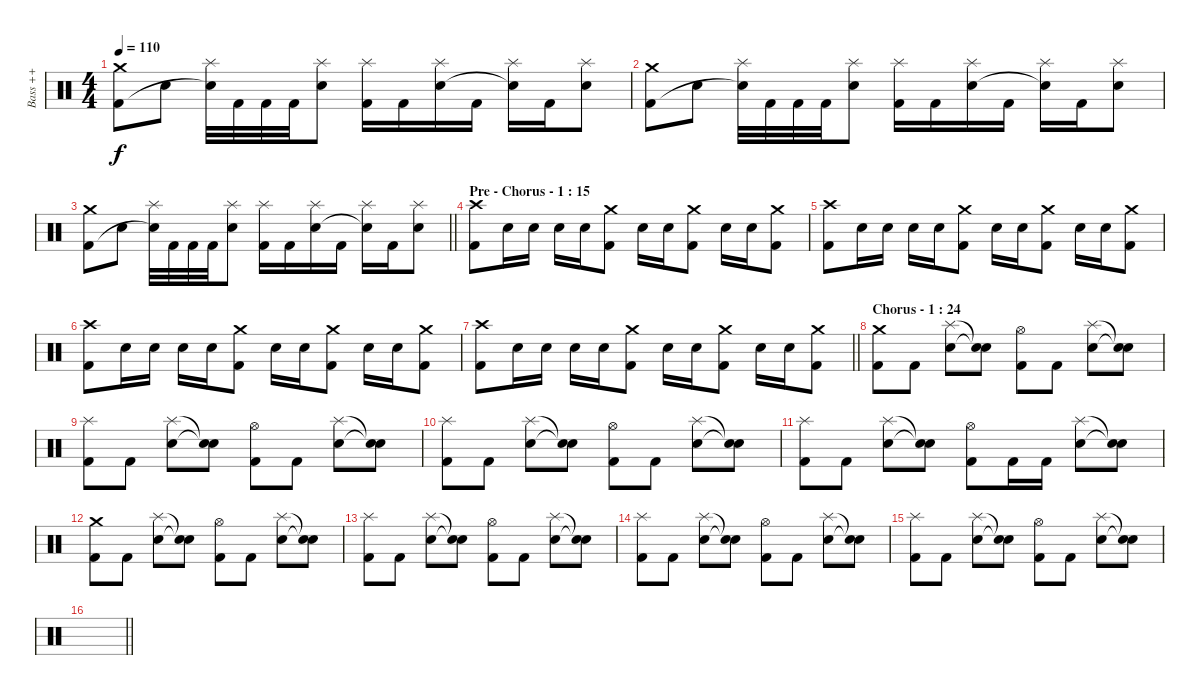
\track ("  Bass ++" "  Bass ++") {instrument percussion}
\staff {score}
\articulation defaults
\ts (4 4)
\tempo 110
\clef neutral
\ks c
("Crash medium (hit)" "Kick (hit) 2").8{dy f} "Snare (hit) 2".8 ("Splash (hit)" "Snare (hit)"{t}).32 "Kick (hit) 2".32 "Kick (hit) 2".32 "Kick (hit) 2".32 ("Splash (hit)" "Snare (hit) 2").8 ("Splash (hit)" "Kick (hit) 2").16 "Kick (hit) 2".16 ("Splash (hit)" "Snare (hit) 2").16 "Kick (hit) 2".16 ("Splash (hit)" "Snare (hit)"{t}).16 "Kick (hit) 2".16 ("Splash (hit)" "Snare (hit) 2").8 |
("Crash medium (hit)" "Kick (hit) 2").8 "Snare (hit) 2".8 ("Splash (hit)" "Snare (hit)"{t}).32 "Kick (hit) 2".32 "Kick (hit) 2".32 "Kick (hit) 2".32 ("Splash (hit)" "Snare (hit) 2").8 ("Splash (hit)" "Kick (hit) 2").16 "Kick (hit) 2".16 ("Splash (hit)" "Snare (hit) 2").16 "Kick (hit) 2".16 ("Splash (hit)" "Snare (hit)"{t}).16 "Kick (hit) 2".16 ("Splash (hit)" "Snare (hit) 2").8 |
\barLineRight lightlight
("Crash medium (hit)" "Kick (hit) 2").8 "Snare (hit) 2".8 ("Splash (hit)" "Snare (hit)"{t}).32 "Kick (hit) 2".32 "Kick (hit) 2".32 "Kick (hit) 2".32 ("Splash (hit)" "Snare (hit) 2").8 ("Splash (hit)" "Kick (hit) 2").16 "Kick (hit) 2".16 ("Splash (hit)" "Snare (hit) 2").16 "Kick (hit) 2".16 ("Splash (hit)" "Snare (hit)"{t}).16 "Kick (hit) 2".16 ("Splash (hit)" "Snare (hit) 2").8 |
\section ("" "Pre - Chorus - 1 : 15")
("Crash high (hit)" "Kick (hit) 2").8 "Electric Snare (hit)".16 "Electric Snare (hit)".16 "Electric Snare (hit)".16 "Electric Snare (hit)".16 ("Crash medium (hit)" "Kick (hit) 2").8 "Electric Snare (hit)".16 "Electric Snare (hit)".16 ("Crash medium (hit)" "Kick (hit) 2").8 "Electric Snare (hit)".16 "Electric Snare (hit)".16 ("Crash medium (hit)" "Kick (hit) 2").8 |
("Crash high (hit)" "Kick (hit) 2").8 "Electric Snare (hit)".16 "Electric Snare (hit)".16 "Electric Snare (hit)".16 "Electric Snare (hit)".16 ("Crash medium (hit)" "Kick (hit) 2").8 "Electric Snare (hit)".16 "Electric Snare (hit)".16 ("Crash medium (hit)" "Kick (hit) 2").8 "Electric Snare (hit)".16 "Electric Snare (hit)".16 ("Crash medium (hit)" "Kick (hit) 2").8 |
("Crash high (hit)" "Kick (hit) 2").8 "Electric Snare (hit)".16 "Electric Snare (hit)".16 "Electric Snare (hit)".16 "Electric Snare (hit)".16 ("Crash medium (hit)" "Kick (hit) 2").8 "Electric Snare (hit)".16 "Electric Snare (hit)".16 ("Crash medium (hit)" "Kick (hit) 2").8 "Electric Snare (hit)".16 "Electric Snare (hit)".16 ("Crash medium (hit)" "Kick (hit) 2").8 |
\barLineRight lightlight
("Crash high (hit)" "Kick (hit) 2").8 "Electric Snare (hit)".16 "Electric Snare (hit)".16 "Electric Snare (hit)".16 "Electric Snare (hit)".16 ("Crash medium (hit)" "Kick (hit) 2").8 "Electric Snare (hit)".16 "Electric Snare (hit)".16 ("Crash medium (hit)" "Kick (hit) 2").8 "Electric Snare (hit)".16 "Electric Snare (hit)".16 ("Crash medium (hit)" "Kick (hit) 2").8 |
\section ("" "Chorus - 1 : 24")
("Crash medium (hit)" "Kick (hit) 2").8 "Kick (hit) 2".8 ("Splash (hit)" "Snare (hit) 2").8 ("Snare (hit)"{t} "Snare (hit)"{t}).8 ("Hi-Hat (open)" "Kick (hit) 2").8 "Kick (hit) 2".8 ("Splash (hit)" "Snare (hit) 2").8 ("Snare (hit)"{t} "Snare (hit)"{t}).8 |
("Splash (hit)" "Kick (hit) 2").8 "Kick (hit) 2".8 ("Splash (hit)" "Snare (hit) 2").8 ("Snare (hit)"{t} "Snare (hit)"{t}).8 ("Hi-Hat (open)" "Kick (hit) 2").8 "Kick (hit) 2".8 ("Splash (hit)" "Snare (hit) 2").8 ("Snare (hit)"{t} "Snare (hit)"{t}).8 |
("Splash (hit)" "Kick (hit) 2").8 "Kick (hit) 2".8 ("Splash (hit)" "Snare (hit) 2").8 ("Snare (hit)"{t} "Snare (hit)"{t}).8 ("Hi-Hat (open)" "Kick (hit) 2").8 "Kick (hit) 2".8 ("Splash (hit)" "Snare (hit) 2").8 ("Snare (hit)"{t} "Snare (hit)"{t}).8 |
("Splash (hit)" "Kick (hit) 2").8 "Kick (hit) 2".8 ("Splash (hit)" "Snare (hit) 2").8 ("Snare (hit)"{t} "Snare (hit)"{t}).8 ("Hi-Hat (open)" "Kick (hit) 2").8 "Kick (hit) 2".16 "Kick (hit) 2".16 ("Splash (hit)" "Snare (hit) 2").8 ("Snare (hit)"{t} "Snare (hit)"{t}).8 |
("Crash medium (hit)" "Kick (hit) 2").8 "Kick (hit) 2".8 ("Splash (hit)" "Snare (hit) 2").8 ("Snare (hit)"{t} "Snare (hit)"{t}).8 ("Hi-Hat (open)" "Kick (hit) 2").8 "Kick (hit) 2".8 ("Splash (hit)" "Snare (hit) 2").8 ("Snare (hit)"{t} "Snare (hit)"{t}).8 |
("Splash (hit)" "Kick (hit) 2").8 "Kick (hit) 2".8 ("Splash (hit)" "Snare (hit) 2").8 ("Snare (hit)"{t} "Snare (hit)"{t}).8 ("Hi-Hat (open)" "Kick (hit) 2").8 "Kick (hit) 2".8 ("Splash (hit)" "Snare (hit) 2").8 ("Snare (hit)"{t} "Snare (hit)"{t}).8 |
("Splash (hit)" "Kick (hit) 2").8 "Kick (hit) 2".8 ("Splash (hit)" "Snare (hit) 2").8 ("Snare (hit)"{t} "Snare (hit)"{t}).8 ("Hi-Hat (open)" "Kick (hit) 2").8 "Kick (hit) 2".8 ("Splash (hit)" "Snare (hit) 2").8 ("Snare (hit)"{t} "Snare (hit)"{t}).8 |
("Splash (hit)" "Kick (hit) 2").8 "Kick (hit) 2".8 ("Splash (hit)" "Snare (hit) 2").8 ("Snare (hit)"{t} "Snare (hit)"{t}).8 ("Hi-Hat (open)" "Kick (hit) 2").8 "Kick (hit) 2".8 ("Splash (hit)" "Snare (hit) 2").8 ("Snare (hit)"{t} "Snare (hit)"{t}).8 |
\barLineRight lightlight
